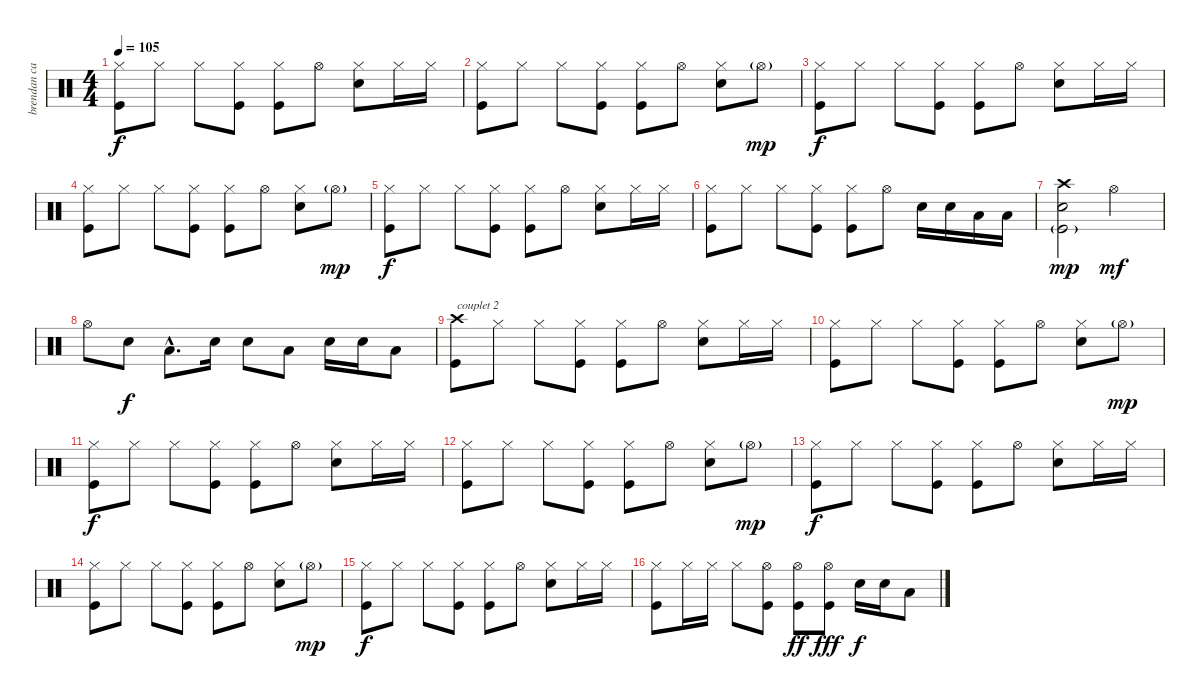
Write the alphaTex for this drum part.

\track ("brendan canty" "brendan ca") {instrument percussion}
\staff {score}
\articulation defaults
\ts (4 4)
\tempo 105
\clef neutral
\ks c
("Hi-Hat (closed)" "Kick (hit)").8{dy f} "Hi-Hat (closed)".8 "Hi-Hat (closed)".8 ("Hi-Hat (closed)" "Kick (hit)").8 ("Hi-Hat (closed)" "Kick (hit)").8 "Hi-Hat (open)".8 ("Hi-Hat (closed)" "Electric Snare (hit)").8 "Hi-Hat (closed)".16 "Hi-Hat (closed)".16 |
("Hi-Hat (closed)" "Kick (hit)").8 "Hi-Hat (closed)".8 "Hi-Hat (closed)".8 ("Hi-Hat (closed)" "Kick (hit)").8 ("Hi-Hat (closed)" "Kick (hit)").8 "Hi-Hat (open)".8 ("Hi-Hat (closed)" "Electric Snare (hit)").8 "Hi-Hat (open)"{g}.8{dy mp} |
("Hi-Hat (closed)" "Kick (hit)").8{dy f} "Hi-Hat (closed)".8 "Hi-Hat (closed)".8 ("Hi-Hat (closed)" "Kick (hit)").8 ("Hi-Hat (closed)" "Kick (hit)").8 "Hi-Hat (open)".8 ("Hi-Hat (closed)" "Electric Snare (hit)").8 "Hi-Hat (closed)".16 "Hi-Hat (closed)".16 |
("Hi-Hat (closed)" "Kick (hit)").8 "Hi-Hat (closed)".8 "Hi-Hat (closed)".8 ("Hi-Hat (closed)" "Kick (hit)").8 ("Hi-Hat (closed)" "Kick (hit)").8 "Hi-Hat (open)".8 ("Hi-Hat (closed)" "Electric Snare (hit)").8 "Hi-Hat (open)"{g}.8{dy mp} |
("Hi-Hat (closed)" "Kick (hit)").8{dy f} "Hi-Hat (closed)".8 "Hi-Hat (closed)".8 ("Hi-Hat (closed)" "Kick (hit)").8 ("Hi-Hat (closed)" "Kick (hit)").8 "Hi-Hat (open)".8 ("Hi-Hat (closed)" "Electric Snare (hit)").8 "Hi-Hat (closed)".16 "Hi-Hat (closed)".16 |
("Hi-Hat (closed)" "Kick (hit)").8 "Hi-Hat (closed)".8 "Hi-Hat (closed)".8 ("Hi-Hat (closed)" "Kick (hit)").8 ("Hi-Hat (closed)" "Kick (hit)").8 "Hi-Hat (open)".8 "Electric Snare (hit)".16 "Electric Snare (hit)".16 "Low Floor Tom (hit)".16 "Low Floor Tom (hit)".16 |
("Crash high (hit)" "Electric Snare (hit)" "Kick (hit)"{g}).2{dy mp} "Hi-Hat (open)".2{dy mf} |
"Hi-Hat (open)".8 "Electric Snare (hit)".8{dy f} "Low Tom (hit)"{hac}.8{d} "Electric Snare (hit)".16 "Electric Snare (hit)".8 "Low Tom (hit)".8 "Electric Snare (hit)".16 "Electric Snare (hit)".16 "Low Floor Tom (hit)".8 |
("Crash high (hit)" "Kick (hit)").8{txt "couplet 2"} "Hi-Hat (closed)".8 "Hi-Hat (closed)".8 ("Hi-Hat (closed)" "Kick (hit)").8 ("Hi-Hat (closed)" "Kick (hit)").8 "Hi-Hat (open)".8 ("Hi-Hat (closed)" "Electric Snare (hit)").8 "Hi-Hat (closed)".16 "Hi-Hat (closed)".16 |
("Hi-Hat (closed)" "Kick (hit)").8 "Hi-Hat (closed)".8 "Hi-Hat (closed)".8 ("Hi-Hat (closed)" "Kick (hit)").8 ("Hi-Hat (closed)" "Kick (hit)").8 "Hi-Hat (open)".8 ("Hi-Hat (closed)" "Electric Snare (hit)").8 "Hi-Hat (open)"{g}.8{dy mp} |
("Hi-Hat (closed)" "Kick (hit)").8{dy f} "Hi-Hat (closed)".8 "Hi-Hat (closed)".8 ("Hi-Hat (closed)" "Kick (hit)").8 ("Hi-Hat (closed)" "Kick (hit)").8 "Hi-Hat (open)".8 ("Hi-Hat (closed)" "Electric Snare (hit)").8 "Hi-Hat (closed)".16 "Hi-Hat (closed)".16 |
("Hi-Hat (closed)" "Kick (hit)").8 "Hi-Hat (closed)".8 "Hi-Hat (closed)".8 ("Hi-Hat (closed)" "Kick (hit)").8 ("Hi-Hat (closed)" "Kick (hit)").8 "Hi-Hat (open)".8 ("Hi-Hat (closed)" "Electric Snare (hit)").8 "Hi-Hat (open)"{g}.8{dy mp} |
("Hi-Hat (closed)" "Kick (hit)").8{dy f} "Hi-Hat (closed)".8 "Hi-Hat (closed)".8 ("Hi-Hat (closed)" "Kick (hit)").8 ("Hi-Hat (closed)" "Kick (hit)").8 "Hi-Hat (open)".8 ("Hi-Hat (closed)" "Electric Snare (hit)").8 "Hi-Hat (closed)".16 "Hi-Hat (closed)".16 |
("Hi-Hat (closed)" "Kick (hit)").8 "Hi-Hat (closed)".8 "Hi-Hat (closed)".8 ("Hi-Hat (closed)" "Kick (hit)").8 ("Hi-Hat (closed)" "Kick (hit)").8 "Hi-Hat (open)".8 ("Hi-Hat (closed)" "Electric Snare (hit)").8 "Hi-Hat (open)"{g}.8{dy mp} |
("Hi-Hat (closed)" "Kick (hit)").8{dy f} "Hi-Hat (closed)".8 "Hi-Hat (closed)".8 ("Hi-Hat (closed)" "Kick (hit)").8 ("Hi-Hat (closed)" "Kick (hit)").8 "Hi-Hat (open)".8 ("Hi-Hat (closed)" "Electric Snare (hit)").8 "Hi-Hat (closed)".16 "Hi-Hat (closed)".16 |
("Hi-Hat (closed)" "Kick (hit)").8 "Hi-Hat (closed)".16 "Hi-Hat (closed)".16 "Hi-Hat (closed)".8 ("Hi-Hat (open)" "Kick (hit)").8 ("Hi-Hat (open)" "Kick (hit)").8{dy ff} ("Hi-Hat (open)" "Kick (hit)").8{dy fff} "Electric Snare (hit)".16{dy f} "Electric Snare (hit)".16 "Low Floor Tom (hit)".8
